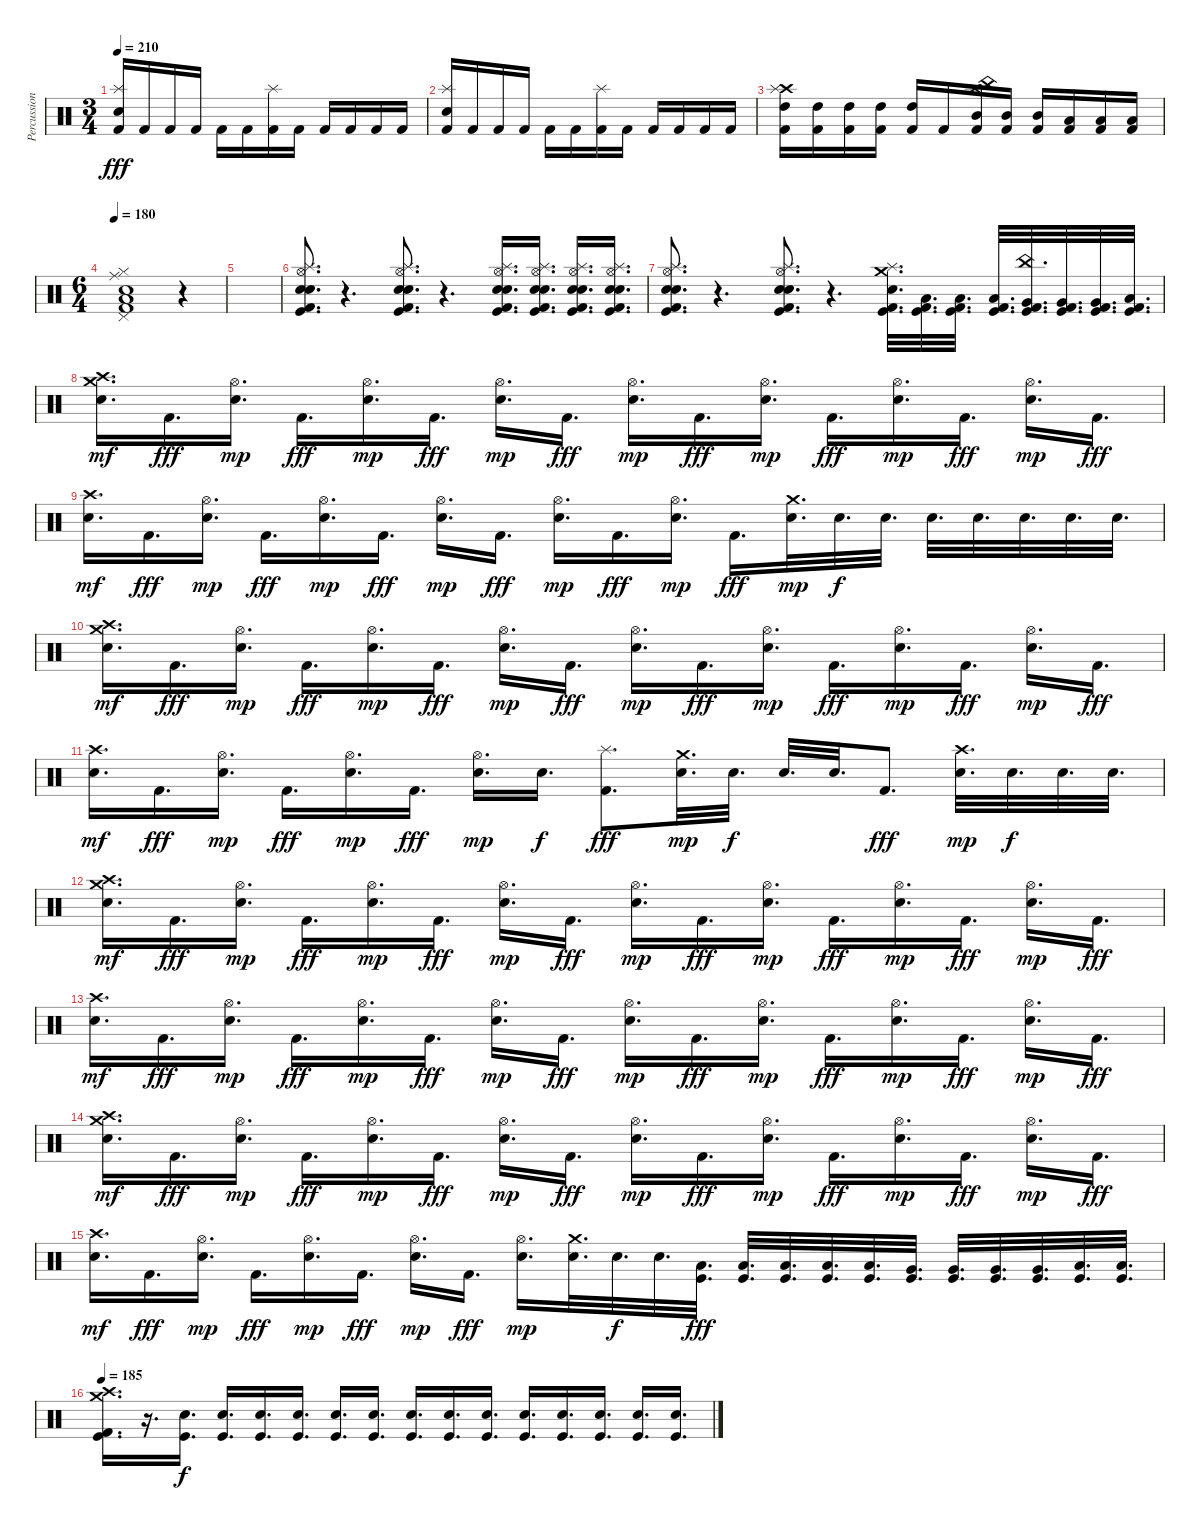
\track ("Percussions" "Percussion") {instrument percussion}
\staff {score}
\articulation defaults
\ts (3 4)
\tempo 210
\clef neutral
\ks c
("Electric Snare (hit)" "Splash (hit)" "Kick (hit) 2").16{dy fff} "Kick (hit) 2".16 "Kick (hit) 2".16 "Kick (hit) 2".16 "Kick (hit) 2".16 "Kick (hit) 2".16 ("Splash (hit)" "Kick (hit) 2").16 "Kick (hit) 2".16 "Kick (hit) 2".16 "Kick (hit) 2".16 "Kick (hit) 2".16 "Kick (hit) 2".16 |
("Electric Snare (hit)" "Splash (hit)" "Kick (hit) 2").16 "Kick (hit) 2".16 "Kick (hit) 2".16 "Kick (hit) 2".16 "Kick (hit) 2".16 "Kick (hit) 2".16 ("Splash (hit)" "Kick (hit) 2").16 "Kick (hit) 2".16 "Kick (hit) 2".16 "Kick (hit) 2".16 "Kick (hit) 2".16 "Kick (hit) 2".16 |
("Crash high (hit)" "Splash (hit)" "High Tom (hit)" "Kick (hit) 2").16 ("High Tom (hit)" "Kick (hit) 2").16 ("High Tom (hit)" "Kick (hit) 2").16 ("High Tom (hit)" "Kick (hit) 2").16 ("High Tom (hit)" "Kick (hit) 2").16 "Kick (hit) 2".16 ("Crash high (hit)" "China (hit)" "Mid Tom (hit)" "Kick (hit) 2").16 ("Mid Tom (hit)" "Kick (hit) 2").16 ("Mid Tom (hit)" "Kick (hit) 2").16 ("Low Tom (hit)" "Kick (hit) 2").16 ("Low Tom (hit)" "Kick (hit) 2").16 ("Low Tom (hit)" "Kick (hit) 2").16 |
\ts (6 4)
\tempo 180
("Pedal Hi-Hat (hit)" "Hi-Hat (closed)" "Ride (middle)" "Electric Snare (hit)" "Low Floor Tom (hit)" "Kick (hit) 2").1 r.4 |
|
("Hi-Hat (open)" "Splash (hit)" "Electric Snare (hit)" "Snare (hit) 2" "Kick (hit)" "Kick (hit) 2").8{d} r.4{d} ("Hi-Hat (open)" "Splash (hit)" "Electric Snare (hit)" "Snare (hit) 2" "Kick (hit)" "Kick (hit) 2").8{d} r.4{d} ("Hi-Hat (open)" "Splash (hit)" "Electric Snare (hit)" "Snare (hit) 2" "Kick (hit)" "Kick (hit) 2").16{d} ("Hi-Hat (open)" "Splash (hit)" "Electric Snare (hit)" "Snare (hit) 2" "Kick (hit)" "Kick (hit) 2").16{d} ("Hi-Hat (open)" "Splash (hit)" "Electric Snare (hit)" "Snare (hit) 2" "Kick (hit)" "Kick (hit) 2").16{d} ("Hi-Hat (open)" "Splash (hit)" "Electric Snare (hit)" "Snare (hit) 2" "Kick (hit)" "Kick (hit) 2").16{d} |
("Hi-Hat (open)" "Splash (hit)" "Electric Snare (hit)" "Snare (hit) 2" "Kick (hit)" "Kick (hit) 2").8{d} r.4{d} ("Hi-Hat (open)" "Splash (hit)" "Electric Snare (hit)" "Snare (hit) 2" "Kick (hit)" "Kick (hit) 2").8{d} r.4{d} ("Crash medium (hit)" "Splash (hit)" "Electric Snare (hit)" "Kick (hit)" "Kick (hit) 2").32{d} ("Low Floor Tom (hit)" "Kick (hit)" "Kick (hit) 2").32{d} ("Low Floor Tom (hit)" "Kick (hit)" "Kick (hit) 2").32{d} ("Low Floor Tom (hit)" "Kick (hit)" "Kick (hit) 2").32{d} ("China (hit)" "Very Low Tom (hit)" "Kick (hit)" "Kick (hit) 2").32{d} ("Very Low Tom (hit)" "Kick (hit)" "Kick (hit) 2").32{d} ("Very Low Tom (hit)" "Kick (hit)" "Kick (hit) 2").32{d} ("Low Tom (hit)" "Kick (hit)" "Kick (hit) 2").32{d} |
("Crash medium (hit)" "Crash high (hit)" "Electric Snare (hit)").16{d dy mf} "Kick (hit) 2".16{d dy fff} ("Hi-Hat (open)" "Electric Snare (hit)").16{d dy mp} "Kick (hit) 2".16{d dy fff} ("Hi-Hat (open)" "Electric Snare (hit)").16{d dy mp} "Kick (hit) 2".16{d dy fff} ("Hi-Hat (open)" "Electric Snare (hit)").16{d dy mp} "Kick (hit) 2".16{d dy fff} ("Hi-Hat (open)" "Electric Snare (hit)").16{d dy mp} "Kick (hit) 2".16{d dy fff} ("Hi-Hat (open)" "Electric Snare (hit)").16{d dy mp} "Kick (hit) 2".16{d dy fff} ("Hi-Hat (open)" "Electric Snare (hit)").16{d dy mp} "Kick (hit) 2".16{d dy fff} ("Hi-Hat (open)" "Electric Snare (hit)").16{d dy mp} "Kick (hit) 2".16{d dy fff} |
("Crash high (hit)" "Electric Snare (hit)").16{d dy mf} "Kick (hit) 2".16{d dy fff} ("Hi-Hat (open)" "Electric Snare (hit)").16{d dy mp} "Kick (hit) 2".16{d dy fff} ("Hi-Hat (open)" "Electric Snare (hit)").16{d dy mp} "Kick (hit) 2".16{d dy fff} ("Hi-Hat (open)" "Electric Snare (hit)").16{d dy mp} "Kick (hit) 2".16{d dy fff} ("Hi-Hat (open)" "Electric Snare (hit)").16{d dy mp} "Kick (hit) 2".16{d dy fff} ("Hi-Hat (open)" "Electric Snare (hit)").16{d dy mp} "Kick (hit) 2".16{d dy fff} ("Crash medium (hit)" "Electric Snare (hit)").32{d dy mp} "Electric Snare (hit)".32{d dy f} "Electric Snare (hit)".32{d} "Electric Snare (hit)".32{d} "Electric Snare (hit)".32{d} "Electric Snare (hit)".32{d} "Electric Snare (hit)".32{d} "Electric Snare (hit)".32{d} |
("Crash medium (hit)" "Crash high (hit)" "Electric Snare (hit)").16{d dy mf} "Kick (hit) 2".16{d dy fff} ("Hi-Hat (open)" "Electric Snare (hit)").16{d dy mp} "Kick (hit) 2".16{d dy fff} ("Hi-Hat (open)" "Electric Snare (hit)").16{d dy mp} "Kick (hit) 2".16{d dy fff} ("Hi-Hat (open)" "Electric Snare (hit)").16{d dy mp} "Kick (hit) 2".16{d dy fff} ("Hi-Hat (open)" "Electric Snare (hit)").16{d dy mp} "Kick (hit) 2".16{d dy fff} ("Hi-Hat (open)" "Electric Snare (hit)").16{d dy mp} "Kick (hit) 2".16{d dy fff} ("Hi-Hat (open)" "Electric Snare (hit)").16{d dy mp} "Kick (hit) 2".16{d dy fff} ("Hi-Hat (open)" "Electric Snare (hit)").16{d dy mp} "Kick (hit) 2".16{d dy fff} |
("Crash high (hit)" "Electric Snare (hit)").16{d dy mf} "Kick (hit) 2".16{d dy fff} ("Hi-Hat (open)" "Electric Snare (hit)").16{d dy mp} "Kick (hit) 2".16{d dy fff} ("Hi-Hat (open)" "Electric Snare (hit)").16{d dy mp} "Kick (hit) 2".16{d dy fff} ("Hi-Hat (open)" "Electric Snare (hit)").16{d dy mp} "Electric Snare (hit)".16{d dy f} ("Splash (hit)" "Kick (hit) 2").8{d dy fff} ("Crash medium (hit)" "Electric Snare (hit)").32{d dy mp} "Electric Snare (hit)".32{d dy f} "Electric Snare (hit)".32{d} "Electric Snare (hit)".32{d} "Kick (hit) 2".8{d dy fff} ("Crash high (hit)" "Electric Snare (hit)").32{d dy mp} "Electric Snare (hit)".32{d dy f} "Electric Snare (hit)".32{d} "Electric Snare (hit)".32{d} |
("Crash medium (hit)" "Crash high (hit)" "Electric Snare (hit)").16{d dy mf} "Kick (hit) 2".16{d dy fff} ("Hi-Hat (open)" "Electric Snare (hit)").16{d dy mp} "Kick (hit) 2".16{d dy fff} ("Hi-Hat (open)" "Electric Snare (hit)").16{d dy mp} "Kick (hit) 2".16{d dy fff} ("Hi-Hat (open)" "Electric Snare (hit)").16{d dy mp} "Kick (hit) 2".16{d dy fff} ("Hi-Hat (open)" "Electric Snare (hit)").16{d dy mp} "Kick (hit) 2".16{d dy fff} ("Hi-Hat (open)" "Electric Snare (hit)").16{d dy mp} "Kick (hit) 2".16{d dy fff} ("Hi-Hat (open)" "Electric Snare (hit)").16{d dy mp} "Kick (hit) 2".16{d dy fff} ("Hi-Hat (open)" "Electric Snare (hit)").16{d dy mp} "Kick (hit) 2".16{d dy fff} |
("Crash high (hit)" "Electric Snare (hit)").16{d dy mf} "Kick (hit) 2".16{d dy fff} ("Hi-Hat (open)" "Electric Snare (hit)").16{d dy mp} "Kick (hit) 2".16{d dy fff} ("Hi-Hat (open)" "Electric Snare (hit)").16{d dy mp} "Kick (hit) 2".16{d dy fff} ("Hi-Hat (open)" "Electric Snare (hit)").16{d dy mp} "Kick (hit) 2".16{d dy fff} ("Hi-Hat (open)" "Electric Snare (hit)").16{d dy mp} "Kick (hit) 2".16{d dy fff} ("Hi-Hat (open)" "Electric Snare (hit)").16{d dy mp} "Kick (hit) 2".16{d dy fff} ("Hi-Hat (open)" "Electric Snare (hit)").16{d dy mp} "Kick (hit) 2".16{d dy fff} ("Hi-Hat (open)" "Electric Snare (hit)").16{d dy mp} "Kick (hit) 2".16{d dy fff} |
("Crash medium (hit)" "Crash high (hit)" "Electric Snare (hit)").16{d dy mf} "Kick (hit) 2".16{d dy fff} ("Hi-Hat (open)" "Electric Snare (hit)").16{d dy mp} "Kick (hit) 2".16{d dy fff} ("Hi-Hat (open)" "Electric Snare (hit)").16{d dy mp} "Kick (hit) 2".16{d dy fff} ("Hi-Hat (open)" "Electric Snare (hit)").16{d dy mp} "Kick (hit) 2".16{d dy fff} ("Hi-Hat (open)" "Electric Snare (hit)").16{d dy mp} "Kick (hit) 2".16{d dy fff} ("Hi-Hat (open)" "Electric Snare (hit)").16{d dy mp} "Kick (hit) 2".16{d dy fff} ("Hi-Hat (open)" "Electric Snare (hit)").16{d dy mp} "Kick (hit) 2".16{d dy fff} ("Hi-Hat (open)" "Electric Snare (hit)").16{d dy mp} "Kick (hit) 2".16{d dy fff} |
("Crash high (hit)" "Electric Snare (hit)").16{d dy mf} "Kick (hit) 2".16{d dy fff} ("Hi-Hat (open)" "Electric Snare (hit)").16{d dy mp} "Kick (hit) 2".16{d dy fff} ("Hi-Hat (open)" "Electric Snare (hit)").16{d dy mp} "Kick (hit) 2".16{d dy fff} ("Hi-Hat (open)" "Electric Snare (hit)").16{d dy mp} "Kick (hit) 2".16{d dy fff} ("Hi-Hat (open)" "Electric Snare (hit)").16{d dy mp} ("Crash medium (hit)" "Electric Snare (hit)").32{d} "Electric Snare (hit)".32{d dy f} "Electric Snare (hit)".32{d} ("Low Floor Tom (hit)" "Kick (hit)").32{d dy fff} ("Low Floor Tom (hit)" "Kick (hit)").32{d} ("Low Floor Tom (hit)" "Kick (hit)").32{d} ("Low Floor Tom (hit)" "Kick (hit)").32{d} ("Low Floor Tom (hit)" "Kick (hit)").32{d} ("Very Low Tom (hit)" "Kick (hit)").32{d} ("Very Low Tom (hit)" "Kick (hit)").32{d} ("Very Low Tom (hit)" "Kick (hit)").32{d} ("Very Low Tom (hit)" "Kick (hit)").32{d} ("Low Tom (hit)" "Kick (hit)").32{d} ("Low Tom (hit)" "Kick (hit)").32{d} |
\tempo 185
("Crash high (hit)" "Crash medium (hit)" "Kick (hit)" "Kick (hit) 2").16{d} r.16{d} ("Electric Snare (hit)" "Kick (hit)").16{d dy f} ("Electric Snare (hit)" "Kick (hit)").16{d} ("Electric Snare (hit)" "Kick (hit)").16{d} ("Electric Snare (hit)" "Kick (hit)").16{d} ("Electric Snare (hit)" "Kick (hit)").16{d} ("Electric Snare (hit)" "Kick (hit)").16{d} ("Electric Snare (hit)" "Kick (hit)").16{d} ("Electric Snare (hit)" "Kick (hit)").16{d} ("Electric Snare (hit)" "Kick (hit)").16{d} ("Electric Snare (hit)" "Kick (hit)").16{d} ("Electric Snare (hit)" "Kick (hit)").16{d} ("Electric Snare (hit)" "Kick (hit)").16{d} ("Electric Snare (hit)" "Kick (hit)").16{d} ("Electric Snare (hit)" "Kick (hit)").16{d}
